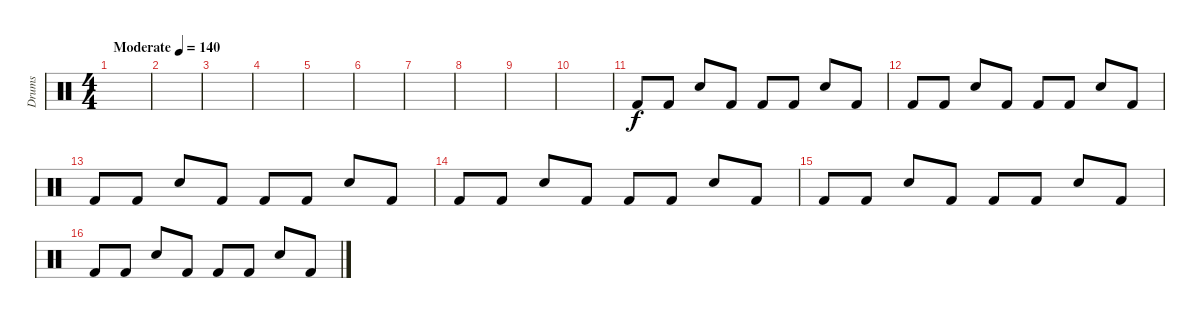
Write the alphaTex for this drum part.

\track ("Drums" "Drums") {instrument percussion}
\staff {score}
\articulation defaults
\ts (4 4)
\tempo (140 "Moderate")
\clef neutral
\ks c
|
|
|
|
|
|
|
|
|
|
"Kick (hit) 2".8 "Kick (hit) 2".8 "Snare (hit) 2".8 "Kick (hit) 2".8 "Kick (hit) 2".8 "Kick (hit) 2".8 "Snare (hit) 2".8 "Kick (hit) 2".8 |
"Kick (hit) 2".8 "Kick (hit) 2".8 "Snare (hit) 2".8 "Kick (hit) 2".8 "Kick (hit) 2".8 "Kick (hit) 2".8 "Snare (hit) 2".8 "Kick (hit) 2".8 |
"Kick (hit) 2".8 "Kick (hit) 2".8 "Snare (hit) 2".8 "Kick (hit) 2".8 "Kick (hit) 2".8 "Kick (hit) 2".8 "Snare (hit) 2".8 "Kick (hit) 2".8 |
"Kick (hit) 2".8 "Kick (hit) 2".8 "Snare (hit) 2".8 "Kick (hit) 2".8 "Kick (hit) 2".8 "Kick (hit) 2".8 "Snare (hit) 2".8 "Kick (hit) 2".8 |
"Kick (hit) 2".8 "Kick (hit) 2".8 "Snare (hit) 2".8 "Kick (hit) 2".8 "Kick (hit) 2".8 "Kick (hit) 2".8 "Snare (hit) 2".8 "Kick (hit) 2".8 |
"Kick (hit) 2".8 "Kick (hit) 2".8 "Snare (hit) 2".8 "Kick (hit) 2".8 "Kick (hit) 2".8 "Kick (hit) 2".8 "Snare (hit) 2".8 "Kick (hit) 2".8
